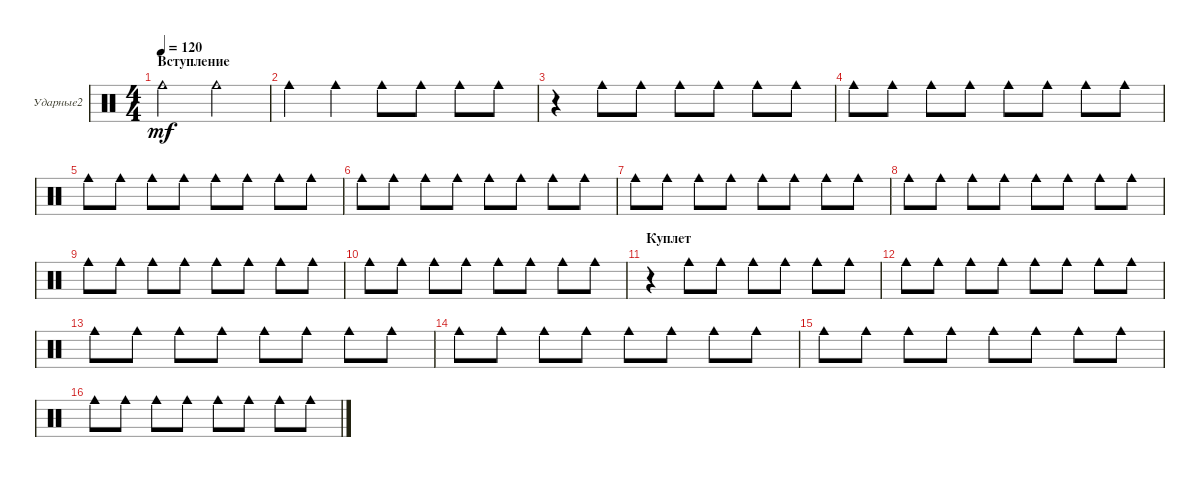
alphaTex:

\defaultSystemsLayout 4
\bracketExtendMode groupsimilarinstruments
\firstSystemTrackNameOrientation horizontal
\otherSystemsTrackNameOrientation horizontal
\track ("Е.Кулаков" "Ударные2") {instrument percussion}
\staff {score}
\articulation defaults
\ts (4 4)
\section ("" "Вступление")
\tempo 120
\clef neutral
\ks c "Cowbell medium (hit)".2{dy mf} "Cowbell medium (hit)".2
|
"Cowbell medium (hit)".4 "Cowbell medium (hit)".4 "Cowbell medium (hit)".8 "Cowbell medium (hit)".8 "Cowbell medium (hit)".8 "Cowbell medium (hit)".8 |
r.4 "Cowbell medium (hit)".8 "Cowbell medium (hit)".8 "Cowbell medium (hit)".8 "Cowbell medium (hit)".8 "Cowbell medium (hit)".8 "Cowbell medium (hit)".8 |
"Cowbell medium (hit)".8 "Cowbell medium (hit)".8 "Cowbell medium (hit)".8 "Cowbell medium (hit)".8 "Cowbell medium (hit)".8 "Cowbell medium (hit)".8 "Cowbell medium (hit)".8 "Cowbell medium (hit)".8 |
"Cowbell medium (hit)".8 "Cowbell medium (hit)".8 "Cowbell medium (hit)".8 "Cowbell medium (hit)".8 "Cowbell medium (hit)".8 "Cowbell medium (hit)".8 "Cowbell medium (hit)".8 "Cowbell medium (hit)".8 |
"Cowbell medium (hit)".8 "Cowbell medium (hit)".8 "Cowbell medium (hit)".8 "Cowbell medium (hit)".8 "Cowbell medium (hit)".8 "Cowbell medium (hit)".8 "Cowbell medium (hit)".8 "Cowbell medium (hit)".8 |
"Cowbell medium (hit)".8 "Cowbell medium (hit)".8 "Cowbell medium (hit)".8 "Cowbell medium (hit)".8 "Cowbell medium (hit)".8 "Cowbell medium (hit)".8 "Cowbell medium (hit)".8 "Cowbell medium (hit)".8 |
"Cowbell medium (hit)".8 "Cowbell medium (hit)".8 "Cowbell medium (hit)".8 "Cowbell medium (hit)".8 "Cowbell medium (hit)".8 "Cowbell medium (hit)".8 "Cowbell medium (hit)".8 "Cowbell medium (hit)".8 |
"Cowbell medium (hit)".8 "Cowbell medium (hit)".8 "Cowbell medium (hit)".8 "Cowbell medium (hit)".8 "Cowbell medium (hit)".8 "Cowbell medium (hit)".8 "Cowbell medium (hit)".8 "Cowbell medium (hit)".8 |
"Cowbell medium (hit)".8 "Cowbell medium (hit)".8 "Cowbell medium (hit)".8 "Cowbell medium (hit)".8 "Cowbell medium (hit)".8 "Cowbell medium (hit)".8 "Cowbell medium (hit)".8 "Cowbell medium (hit)".8 |
\section ("" "Куплет")
r.4 "Cowbell medium (hit)".8 "Cowbell medium (hit)".8 "Cowbell medium (hit)".8 "Cowbell medium (hit)".8 "Cowbell medium (hit)".8 "Cowbell medium (hit)".8 |
"Cowbell medium (hit)".8 "Cowbell medium (hit)".8 "Cowbell medium (hit)".8 "Cowbell medium (hit)".8 "Cowbell medium (hit)".8 "Cowbell medium (hit)".8 "Cowbell medium (hit)".8 "Cowbell medium (hit)".8 |
"Cowbell medium (hit)".8 "Cowbell medium (hit)".8 "Cowbell medium (hit)".8 "Cowbell medium (hit)".8 "Cowbell medium (hit)".8 "Cowbell medium (hit)".8 "Cowbell medium (hit)".8 "Cowbell medium (hit)".8 |
"Cowbell medium (hit)".8 "Cowbell medium (hit)".8 "Cowbell medium (hit)".8 "Cowbell medium (hit)".8 "Cowbell medium (hit)".8 "Cowbell medium (hit)".8 "Cowbell medium (hit)".8 "Cowbell medium (hit)".8 |
"Cowbell medium (hit)".8 "Cowbell medium (hit)".8 "Cowbell medium (hit)".8 "Cowbell medium (hit)".8 "Cowbell medium (hit)".8 "Cowbell medium (hit)".8 "Cowbell medium (hit)".8 "Cowbell medium (hit)".8 |
"Cowbell medium (hit)".8 "Cowbell medium (hit)".8 "Cowbell medium (hit)".8 "Cowbell medium (hit)".8 "Cowbell medium (hit)".8 "Cowbell medium (hit)".8 "Cowbell medium (hit)".8 "Cowbell medium (hit)".8
